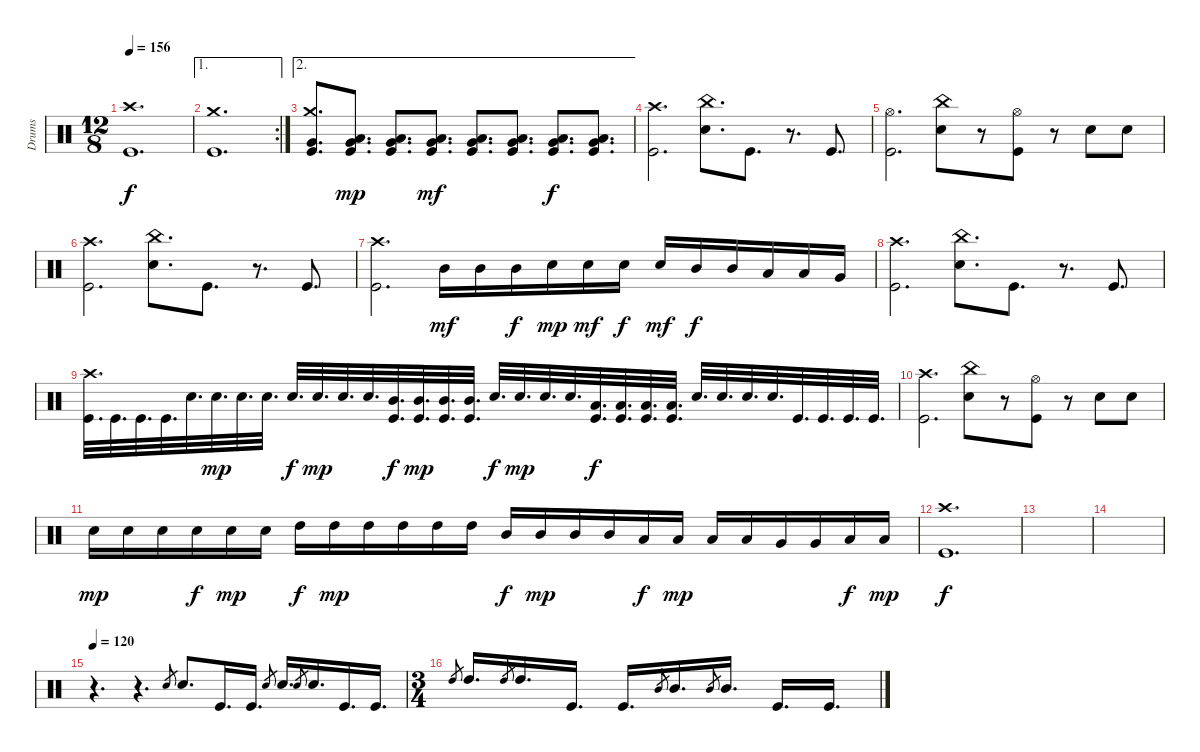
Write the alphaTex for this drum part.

\track ("Drums" "Drums") {instrument percussion}
\staff {score}
\articulation defaults
\ts (12 8)
\tempo 156
\clef neutral
\ks c
("Crash high (hit)" "Kick (hit)").1{d dy f} |
\ae 1
\rc 2
("Crash medium (hit)" "Kick (hit)").1{d} |
\ae 2
("Crash medium (hit)" "Very Low Tom (hit)" "Kick (hit)").8{d} ("Low Tom (hit)" "Very Low Tom (hit)" "Kick (hit)").8{d dy mp} ("Low Tom (hit)" "Very Low Tom (hit)" "Kick (hit)").8{d} ("Low Tom (hit)" "Very Low Tom (hit)" "Kick (hit)").8{d dy mf} ("Low Tom (hit)" "Very Low Tom (hit)" "Kick (hit)").8{d} ("Low Tom (hit)" "Very Low Tom (hit)" "Kick (hit)").8{d} ("Low Tom (hit)" "Very Low Tom (hit)" "Kick (hit)").8{d dy f} ("Low Tom (hit)" "Very Low Tom (hit)" "Kick (hit)").8{d} |
("Crash high (hit)" "Kick (hit)").2{d} ("China (hit)" "Electric Snare (hit)").8{d} "Kick (hit)".8{d} r.8{d} "Kick (hit)".8{d} |
("Hi-Hat (open)" "Kick (hit)").2{d} ("China (hit)" "Electric Snare (hit)").8 r.8 ("Hi-Hat (open)" "Kick (hit)").8 r.8 "Electric Snare (hit)".8 "Electric Snare (hit)".8 |
("Crash high (hit)" "Kick (hit)").2{d} ("China (hit)" "Electric Snare (hit)").8{d} "Kick (hit)".8{d} r.8{d} "Kick (hit)".8{d} |
("Crash high (hit)" "Kick (hit)").2{d} "Mid Tom (hit)".16{dy mf} "Mid Tom (hit)".16 "Mid Tom (hit)".16{dy f} "Electric Snare (hit)".16{dy mp} "Electric Snare (hit)".16{dy mf} "Electric Snare (hit)".16{dy f} "Electric Snare (hit)".16{dy mf} "Mid Tom (hit)".16{dy f} "Mid Tom (hit)".16 "Low Tom (hit)".16 "Low Tom (hit)".16 "Very Low Tom (hit)".16 |
("Crash high (hit)" "Kick (hit)").2{d} ("China (hit)" "Electric Snare (hit)").8{d} "Kick (hit)".8{d} r.8{d} "Kick (hit)".8{d} |
("Crash high (hit)" "Kick (hit)").32{d} "Kick (hit)".32{d} "Kick (hit)".32{d} "Kick (hit)".32{d} "Electric Snare (hit)".32{d} "Electric Snare (hit)".32{d dy mp} "Electric Snare (hit)".32{d} "Electric Snare (hit)".32{d} "Electric Snare (hit)".32{d dy f} "Electric Snare (hit)".32{d dy mp} "Electric Snare (hit)".32{d} "Electric Snare (hit)".32{d} ("Mid Tom (hit)" "Kick (hit)").32{d dy f} ("Mid Tom (hit)" "Kick (hit)").32{d dy mp} ("Mid Tom (hit)" "Kick (hit)").32{d} ("Mid Tom (hit)" "Kick (hit)").32{d} "Electric Snare (hit)".32{d dy f} "Electric Snare (hit)".32{d dy mp} "Electric Snare (hit)".32{d} "Electric Snare (hit)".32{d} ("Low Tom (hit)" "Kick (hit)").32{d dy f} ("Low Tom (hit)" "Kick (hit)").32{d} ("Low Tom (hit)" "Kick (hit)").32{d} ("Low Tom (hit)" "Kick (hit)").32{d} "Electric Snare (hit)".32{d} "Electric Snare (hit)".32{d} "Electric Snare (hit)".32{d} "Electric Snare (hit)".32{d} "Kick (hit)".32{d} "Kick (hit)".32{d} "Kick (hit)".32{d} "Kick (hit)".32{d} |
("Crash high (hit)" "Kick (hit)").2{d} ("China (hit)" "Electric Snare (hit)").8 r.8 ("Hi-Hat (open)" "Kick (hit)").8 r.8 "Electric Snare (hit)".8 "Electric Snare (hit)".8 |
"Electric Snare (hit)".16{dy mp} "Electric Snare (hit)".16 "Electric Snare (hit)".16 "Electric Snare (hit)".16{dy f} "Electric Snare (hit)".16{dy mp} "Electric Snare (hit)".16 "High Tom (hit)".16{dy f} "High Tom (hit)".16{dy mp} "High Tom (hit)".16 "High Tom (hit)".16 "High Tom (hit)".16 "High Tom (hit)".16 "Mid Tom (hit)".16{dy f} "Mid Tom (hit)".16{dy mp} "Mid Tom (hit)".16 "Mid Tom (hit)".16 "Low Tom (hit)".16{dy f} "Low Tom (hit)".16{dy mp} "Low Tom (hit)".16 "Low Tom (hit)".16 "Very Low Tom (hit)".16 "Very Low Tom (hit)".16 "Low Floor Tom (hit)".16{dy f} "Low Floor Tom (hit)".16{dy mp} |
("Crash high (hit)" "Kick (hit)").1{d dy f} |
|
|
\tempo 120
r.4{d} r.4{d} "Electric Snare (hit)".8{gr} "Electric Snare (hit)".8{d} "Kick (hit)".16{d} "Kick (hit)".16{d} "Electric Snare (hit)".8{gr} "Electric Snare (hit)".16{d} "Electric Snare (hit)".8{gr} "Electric Snare (hit)".16{d} "Kick (hit)".16{d} "Kick (hit)".16{d} |
\ts (3 4)
"High Tom (hit)".8{gr} "High Tom (hit)".16{d} "High Tom (hit)".8{gr} "High Tom (hit)".16{d} "Kick (hit)".16{d} "Kick (hit)".16{d} "Mid Tom (hit)".8{gr} "Mid Tom (hit)".16{d} "Mid Tom (hit)".8{gr} "Mid Tom (hit)".16{d} "Kick (hit)".16{d} "Kick (hit)".16{d}
